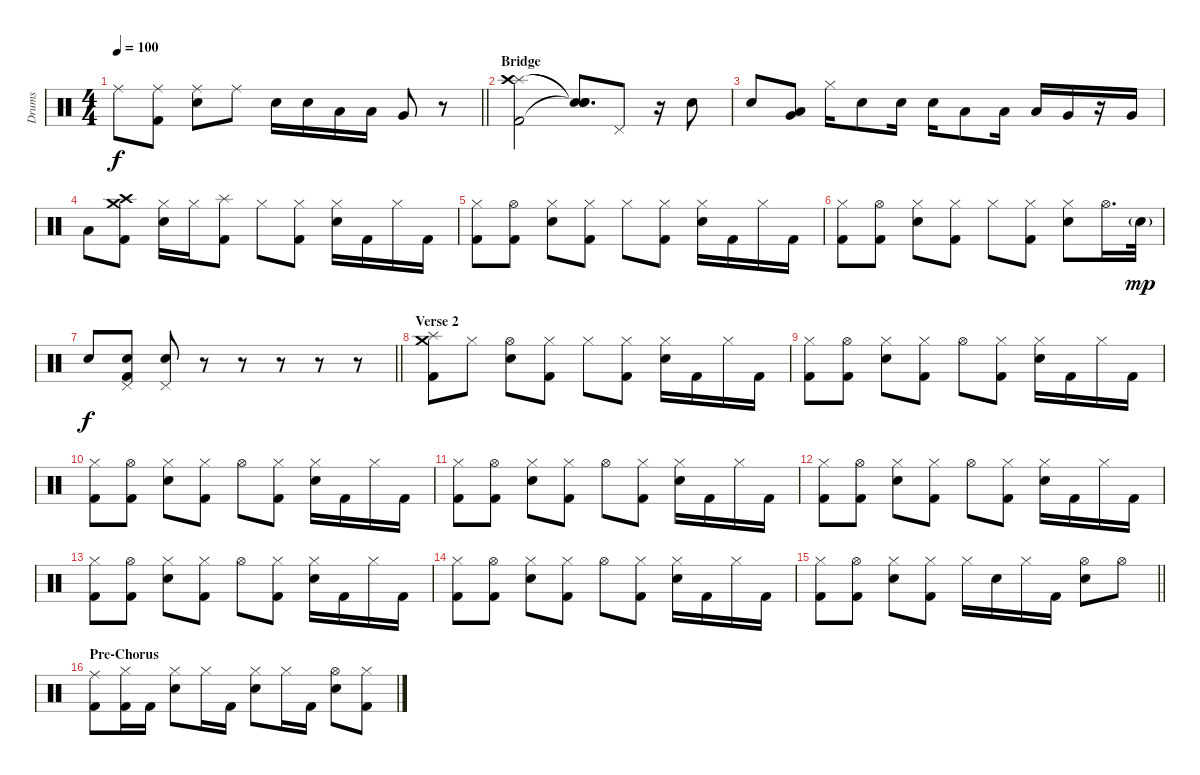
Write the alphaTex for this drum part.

\track ("Drums" "Drums") {instrument percussion}
\staff {score}
\articulation defaults
\ts (4 4)
\tempo 100
\clef neutral
\barLineRight lightlight
\ks c "Ride (middle)".8{dy f}
("Ride (middle)" "Kick (hit) 2").8 ("Ride (middle)" "Snare (hit) 2").8 "Ride (middle)".8 "Snare (hit) 2".16 "Snare (hit) 2".16 "Low Tom (hit)".16 "Low Tom (hit)".16 "Very Low Tom (hit)".8 r.8 |
\section ("" "Bridge")
("Splash (hit)" "Crash high (hit)" "Kick (hit) 2").2 ("Snare (hit)"{t} "Snare (hit)"{t} "Snare (hit)"{t}).8{d} "Pedal Hi-Hat (hit)".8 r.16 "Snare (hit) 2".8 |
"Snare (hit) 2".8 ("Very Low Tom (hit)" "Low Tom (hit)").8 "Hi-Hat (closed)".16 "Snare (hit) 2".8 "Snare (hit) 2".16 "Snare (hit) 2".16 "Low Tom (hit)".8 "Low Tom (hit)".16 "Low Tom (hit)".16 "Very Low Tom (hit)".16 r.16 "Very Low Tom (hit)".16 |
"Low Floor Tom (hit)".8 ("Crash high (hit)" "Kick (hit) 2" "Crash medium (hit)").8 ("Snare (hit) 2" "Hi-Hat (closed)").16 "Hi-Hat (closed)".16 ("Kick (hit) 2" "Splash (hit)").8 "Hi-Hat (closed)".8 ("Kick (hit) 2" "Hi-Hat (closed)").8 ("Snare (hit) 2" "Hi-Hat (closed)").16 "Kick (hit) 2".16 "Hi-Hat (closed)".16 "Kick (hit) 2".16 |
("Kick (hit) 2" "Hi-Hat (closed)").8 ("Kick (hit) 2" "Hi-Hat (open)").8 ("Snare (hit) 2" "Hi-Hat (closed)").8 ("Kick (hit) 2" "Hi-Hat (closed)").8 "Hi-Hat (closed)".8 ("Kick (hit) 2" "Hi-Hat (closed)").8 ("Snare (hit) 2" "Hi-Hat (closed)").16 "Kick (hit) 2".16 "Hi-Hat (closed)".16 "Kick (hit) 2".16 |
("Kick (hit) 2" "Hi-Hat (closed)").8 ("Kick (hit) 2" "Hi-Hat (open)").8 ("Snare (hit) 2" "Hi-Hat (closed)").8 ("Kick (hit) 2" "Hi-Hat (closed)").8 "Hi-Hat (closed)".8 ("Kick (hit) 2" "Hi-Hat (closed)").8 ("Snare (hit) 2" "Hi-Hat (closed)").8 "Hi-Hat (open)".16{d} "Snare (hit) 2"{g}.32{dy mp} |
\barLineRight lightlight "Snare (hit) 2".8{dy f}
("Pedal Hi-Hat (hit)" "Snare (hit) 2" "Kick (hit) 2").8 ("Pedal Hi-Hat (hit)" "Snare (hit) 2").8 r.8 r.8 r.8 r.8 r.8 |
\section ("" "Verse 2")
("Kick (hit) 2" "Crash medium (hit)" "Splash (hit)").8 "Hi-Hat (closed)".8 ("Snare (hit) 2" "Hi-Hat (open)").8 ("Kick (hit) 2" "Hi-Hat (closed)").8 "Hi-Hat (closed)".8 ("Kick (hit) 2" "Hi-Hat (closed)").8 ("Snare (hit) 2" "Hi-Hat (closed)").16 "Kick (hit) 2".16 "Hi-Hat (closed)".16 "Kick (hit) 2".16 |
("Kick (hit) 2" "Hi-Hat (closed)").8 ("Kick (hit) 2" "Hi-Hat (open)").8 ("Snare (hit) 2" "Hi-Hat (closed)").8 ("Kick (hit) 2" "Hi-Hat (closed)").8 "Hi-Hat (open)".8 ("Kick (hit) 2" "Hi-Hat (closed)").8 ("Snare (hit) 2" "Hi-Hat (closed)").16 "Kick (hit) 2".16 "Hi-Hat (closed)".16 "Kick (hit) 2".16 |
("Kick (hit) 2" "Hi-Hat (closed)").8 ("Kick (hit) 2" "Hi-Hat (open)").8 ("Snare (hit) 2" "Hi-Hat (closed)").8 ("Kick (hit) 2" "Hi-Hat (closed)").8 "Hi-Hat (open)".8 ("Kick (hit) 2" "Hi-Hat (closed)").8 ("Snare (hit) 2" "Hi-Hat (closed)").16 "Kick (hit) 2".16 "Hi-Hat (closed)".16 "Kick (hit) 2".16 |
("Kick (hit) 2" "Hi-Hat (closed)").8 ("Kick (hit) 2" "Hi-Hat (open)").8 ("Snare (hit) 2" "Hi-Hat (closed)").8 ("Kick (hit) 2" "Hi-Hat (closed)").8 "Hi-Hat (open)".8 ("Kick (hit) 2" "Hi-Hat (closed)").8 ("Snare (hit) 2" "Hi-Hat (closed)").16 "Kick (hit) 2".16 "Hi-Hat (closed)".16 "Kick (hit) 2".16 |
("Kick (hit) 2" "Hi-Hat (closed)").8 ("Kick (hit) 2" "Hi-Hat (open)").8 ("Snare (hit) 2" "Hi-Hat (closed)").8 ("Kick (hit) 2" "Hi-Hat (closed)").8 "Hi-Hat (open)".8 ("Kick (hit) 2" "Hi-Hat (closed)").8 ("Snare (hit) 2" "Hi-Hat (closed)").16 "Kick (hit) 2".16 "Hi-Hat (closed)".16 "Kick (hit) 2".16 |
("Kick (hit) 2" "Hi-Hat (closed)").8 ("Kick (hit) 2" "Hi-Hat (open)").8 ("Snare (hit) 2" "Hi-Hat (closed)").8 ("Kick (hit) 2" "Hi-Hat (closed)").8 "Hi-Hat (open)".8 ("Kick (hit) 2" "Hi-Hat (closed)").8 ("Snare (hit) 2" "Hi-Hat (closed)").16 "Kick (hit) 2".16 "Hi-Hat (closed)".16 "Kick (hit) 2".16 |
("Kick (hit) 2" "Hi-Hat (closed)").8 ("Kick (hit) 2" "Hi-Hat (open)").8 ("Snare (hit) 2" "Hi-Hat (closed)").8 ("Kick (hit) 2" "Hi-Hat (closed)").8 "Hi-Hat (open)".8 ("Kick (hit) 2" "Hi-Hat (closed)").8 ("Snare (hit) 2" "Hi-Hat (closed)").16 "Kick (hit) 2".16 "Hi-Hat (closed)".16 "Kick (hit) 2".16 |
\barLineRight lightlight
("Kick (hit) 2" "Hi-Hat (closed)").8 ("Kick (hit) 2" "Hi-Hat (open)").8 ("Snare (hit) 2" "Hi-Hat (closed)").8 ("Kick (hit) 2" "Hi-Hat (closed)").8 "Hi-Hat (closed)".16 "Snare (hit) 2".16 "Hi-Hat (closed)".16 "Kick (hit) 2".16 ("Snare (hit) 2" "Hi-Hat (open)").8 "Hi-Hat (open)".8 |
\section ("" "Pre-Chorus")
("Kick (hit) 2" "Ride (middle)").8 ("Kick (hit) 2" "Hi-Hat (closed)").16 "Kick (hit) 2".16 ("Snare (hit) 2" "Hi-Hat (closed)").8 "Hi-Hat (closed)".16 "Kick (hit) 2".16 ("Snare (hit) 2" "Hi-Hat (closed)").8 "Hi-Hat (closed)".16 "Kick (hit) 2".16 ("Snare (hit) 2" "Hi-Hat (open)").8 ("Hi-Hat (closed)" "Kick (hit) 2").8
